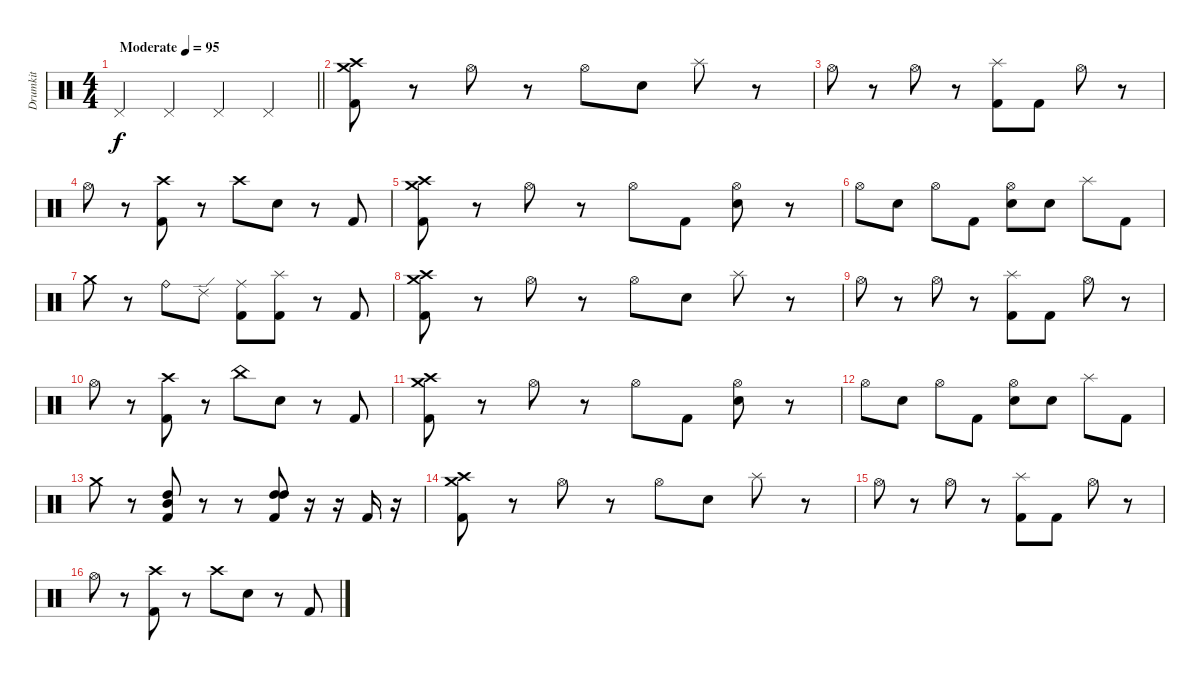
\track ("Drumkit" "Drumkit") {instrument percussion}
\staff {score}
\articulation defaults
\ts (4 4)
\tempo (95 "Moderate")
\clef neutral
\barLineRight lightlight
\ks c "Pedal Hi-Hat (hit)".4{dy f} "Pedal Hi-Hat (hit)".4 "Pedal Hi-Hat (hit)".4 "Pedal Hi-Hat (hit)".4
|
("Crash medium (hit)" "Crash high (hit)" "Kick (hit) 2").8 r.8 "Hi-Hat (open)".8 r.8 "Hi-Hat (open)".8 "Electric Snare (hit)".8 "Splash (hit)".8 r.8 |
"Hi-Hat (open)".8 r.8 "Hi-Hat (open)".8 r.8 ("Splash (hit)" "Kick (hit) 2").8 "Kick (hit) 2".8 "Hi-Hat (open)".8 r.8 |
"Hi-Hat (open)".8 r.8 ("Crash high (hit)" "Kick (hit) 2").8 r.8 "Crash high (hit)".8 "Electric Snare (hit)".8 r.8 "Kick (hit) 2".8 |
("Crash high (hit)" "Crash medium (hit)" "Kick (hit) 2").8 r.8 "Hi-Hat (open)".8 r.8 "Hi-Hat (open)".8 "Kick (hit) 2".8 ("Hi-Hat (open)" "Electric Snare (hit)").8 r.8 |
"Hi-Hat (open)".8 "Electric Snare (hit)".8 "Hi-Hat (open)".8 "Kick (hit) 2".8 ("Hi-Hat (open)" "Electric Snare (hit)").8 "Electric Snare (hit)".8 "Splash (hit)".8 "Kick (hit) 2".8 |
"Crash medium (hit)".8 r.8 "Ride (bell)".8 "Ride (edge) 2".8 ("Ride (middle)" "Kick (hit) 2").8 ("Splash (hit)" "Kick (hit) 2").8 r.8 "Kick (hit) 2".8 |
("Crash medium (hit)" "Crash high (hit)" "Kick (hit) 2").8 r.8 "Hi-Hat (open)".8 r.8 "Hi-Hat (open)".8 "Electric Snare (hit)".8 "Splash (hit)".8 r.8 |
"Hi-Hat (open)".8 r.8 "Hi-Hat (open)".8 r.8 ("Splash (hit)" "Kick (hit) 2").8 "Kick (hit) 2".8 "Hi-Hat (open)".8 r.8 |
"Hi-Hat (open)".8 r.8 ("Crash high (hit)" "Kick (hit) 2").8 r.8 "China (hit)".8 "Electric Snare (hit)".8 r.8 "Kick (hit) 2".8 |
("Crash high (hit)" "Crash medium (hit)" "Kick (hit) 2").8 r.8 "Hi-Hat (open)".8 r.8 "Hi-Hat (open)".8 "Kick (hit) 2".8 ("Hi-Hat (open)" "Electric Snare (hit)").8 r.8 |
"Hi-Hat (open)".8 "Electric Snare (hit)".8 "Hi-Hat (open)".8 "Kick (hit) 2".8 ("Hi-Hat (open)" "Electric Snare (hit)").8 "Electric Snare (hit)".8 "Splash (hit)".8 "Kick (hit) 2".8 |
"Crash medium (hit)".8 r.8 ("Mid Tom (hit)" "High Tom (hit)" "Kick (hit) 2").8 r.8 r.8 ("High Tom (hit)" "High Tom (hit)" "Kick (hit) 2").8 r.16 r.16 "Kick (hit) 2".16 r.16 |
("Crash medium (hit)" "Crash high (hit)" "Kick (hit) 2").8 r.8 "Hi-Hat (open)".8 r.8 "Hi-Hat (open)".8 "Electric Snare (hit)".8 "Splash (hit)".8 r.8 |
"Hi-Hat (open)".8 r.8 "Hi-Hat (open)".8 r.8 ("Splash (hit)" "Kick (hit) 2").8 "Kick (hit) 2".8 "Hi-Hat (open)".8 r.8 |
"Hi-Hat (open)".8 r.8 ("Crash high (hit)" "Kick (hit) 2").8 r.8 "Crash high (hit)".8 "Electric Snare (hit)".8 r.8 "Kick (hit) 2".8
